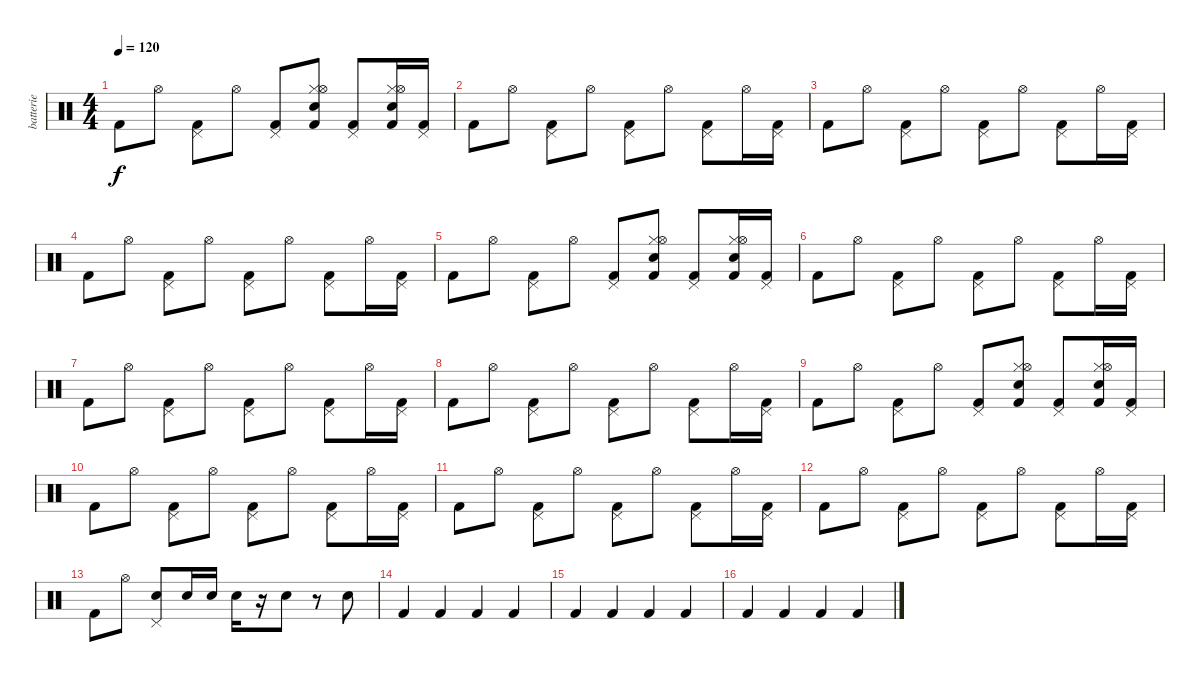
\track ("batterie" "batterie") {instrument percussion}
\staff {score}
\articulation defaults
\ts (4 4)
\tempo 120
\clef neutral
\ks c "Kick (hit) 2".8{dy f} "Hi-Hat (open)".8
("Kick (hit) 2" "Pedal Hi-Hat (hit)").8 "Hi-Hat (open)".8 ("Kick (hit) 2" "Pedal Hi-Hat (hit)").8 ("Kick (hit) 2" "Hi-Hat (closed)" "Electric Snare (hit)" "Hi-Hat (open)").8 ("Kick (hit) 2" "Pedal Hi-Hat (hit)").8 ("Kick (hit) 2" "Hi-Hat (closed)" "Electric Snare (hit)" "Hi-Hat (open)").16 ("Kick (hit) 2" "Pedal Hi-Hat (hit)").16 |
"Kick (hit) 2".8 "Hi-Hat (open)".8 ("Kick (hit) 2" "Pedal Hi-Hat (hit)").8 "Hi-Hat (open)".8 ("Kick (hit) 2" "Pedal Hi-Hat (hit)").8 "Hi-Hat (open)".8 ("Kick (hit) 2" "Pedal Hi-Hat (hit)").8 "Hi-Hat (open)".16 ("Kick (hit) 2" "Pedal Hi-Hat (hit)").16 |
"Kick (hit) 2".8 "Hi-Hat (open)".8 ("Kick (hit) 2" "Pedal Hi-Hat (hit)").8 "Hi-Hat (open)".8 ("Kick (hit) 2" "Pedal Hi-Hat (hit)").8 "Hi-Hat (open)".8 ("Kick (hit) 2" "Pedal Hi-Hat (hit)").8 "Hi-Hat (open)".16 ("Kick (hit) 2" "Pedal Hi-Hat (hit)").16 |
"Kick (hit) 2".8 "Hi-Hat (open)".8 ("Kick (hit) 2" "Pedal Hi-Hat (hit)").8 "Hi-Hat (open)".8 ("Kick (hit) 2" "Pedal Hi-Hat (hit)").8 "Hi-Hat (open)".8 ("Kick (hit) 2" "Pedal Hi-Hat (hit)").8 "Hi-Hat (open)".16 ("Kick (hit) 2" "Pedal Hi-Hat (hit)").16 |
"Kick (hit) 2".8 "Hi-Hat (open)".8 ("Kick (hit) 2" "Pedal Hi-Hat (hit)").8 "Hi-Hat (open)".8 ("Kick (hit) 2" "Pedal Hi-Hat (hit)").8 ("Kick (hit) 2" "Hi-Hat (closed)" "Electric Snare (hit)" "Hi-Hat (open)").8 ("Kick (hit) 2" "Pedal Hi-Hat (hit)").8 ("Kick (hit) 2" "Hi-Hat (closed)" "Electric Snare (hit)" "Hi-Hat (open)").16 ("Kick (hit) 2" "Pedal Hi-Hat (hit)").16 |
"Kick (hit) 2".8 "Hi-Hat (open)".8 ("Kick (hit) 2" "Pedal Hi-Hat (hit)").8 "Hi-Hat (open)".8 ("Kick (hit) 2" "Pedal Hi-Hat (hit)").8 "Hi-Hat (open)".8 ("Kick (hit) 2" "Pedal Hi-Hat (hit)").8 "Hi-Hat (open)".16 ("Kick (hit) 2" "Pedal Hi-Hat (hit)").16 |
"Kick (hit) 2".8 "Hi-Hat (open)".8 ("Kick (hit) 2" "Pedal Hi-Hat (hit)").8 "Hi-Hat (open)".8 ("Kick (hit) 2" "Pedal Hi-Hat (hit)").8 "Hi-Hat (open)".8 ("Kick (hit) 2" "Pedal Hi-Hat (hit)").8 "Hi-Hat (open)".16 ("Kick (hit) 2" "Pedal Hi-Hat (hit)").16 |
"Kick (hit) 2".8 "Hi-Hat (open)".8 ("Kick (hit) 2" "Pedal Hi-Hat (hit)").8 "Hi-Hat (open)".8 ("Kick (hit) 2" "Pedal Hi-Hat (hit)").8 "Hi-Hat (open)".8 ("Kick (hit) 2" "Pedal Hi-Hat (hit)").8 "Hi-Hat (open)".16 ("Kick (hit) 2" "Pedal Hi-Hat (hit)").16 |
"Kick (hit) 2".8 "Hi-Hat (open)".8 ("Kick (hit) 2" "Pedal Hi-Hat (hit)").8 "Hi-Hat (open)".8 ("Kick (hit) 2" "Pedal Hi-Hat (hit)").8 ("Kick (hit) 2" "Hi-Hat (closed)" "Electric Snare (hit)" "Hi-Hat (open)").8 ("Kick (hit) 2" "Pedal Hi-Hat (hit)").8 ("Kick (hit) 2" "Hi-Hat (closed)" "Electric Snare (hit)" "Hi-Hat (open)").16 ("Kick (hit) 2" "Pedal Hi-Hat (hit)").16 |
"Kick (hit) 2".8 "Hi-Hat (open)".8 ("Kick (hit) 2" "Pedal Hi-Hat (hit)").8 "Hi-Hat (open)".8 ("Kick (hit) 2" "Pedal Hi-Hat (hit)").8 "Hi-Hat (open)".8 ("Kick (hit) 2" "Pedal Hi-Hat (hit)").8 "Hi-Hat (open)".16 ("Kick (hit) 2" "Pedal Hi-Hat (hit)").16 |
"Kick (hit) 2".8 "Hi-Hat (open)".8 ("Kick (hit) 2" "Pedal Hi-Hat (hit)").8 "Hi-Hat (open)".8 ("Kick (hit) 2" "Pedal Hi-Hat (hit)").8 "Hi-Hat (open)".8 ("Kick (hit) 2" "Pedal Hi-Hat (hit)").8 "Hi-Hat (open)".16 ("Kick (hit) 2" "Pedal Hi-Hat (hit)").16 |
"Kick (hit) 2".8 "Hi-Hat (open)".8 ("Kick (hit) 2" "Pedal Hi-Hat (hit)").8 "Hi-Hat (open)".8 ("Kick (hit) 2" "Pedal Hi-Hat (hit)").8 "Hi-Hat (open)".8 ("Kick (hit) 2" "Pedal Hi-Hat (hit)").8 "Hi-Hat (open)".16 ("Kick (hit) 2" "Pedal Hi-Hat (hit)").16 |
"Kick (hit) 2".8 "Hi-Hat (open)".8 ("Electric Snare (hit)" "Pedal Hi-Hat (hit)").8 "Electric Snare (hit)".16 "Electric Snare (hit)".16 "Electric Snare (hit)".16 r.16 "Electric Snare (hit)".8 r.8 "Electric Snare (hit)".8 |
"Kick (hit) 2".4 "Kick (hit) 2".4 "Kick (hit) 2".4 "Kick (hit) 2".4 |
"Kick (hit) 2".4 "Kick (hit) 2".4 "Kick (hit) 2".4 "Kick (hit) 2".4 |
"Kick (hit) 2".4 "Kick (hit) 2".4 "Kick (hit) 2".4 "Kick (hit) 2".4
